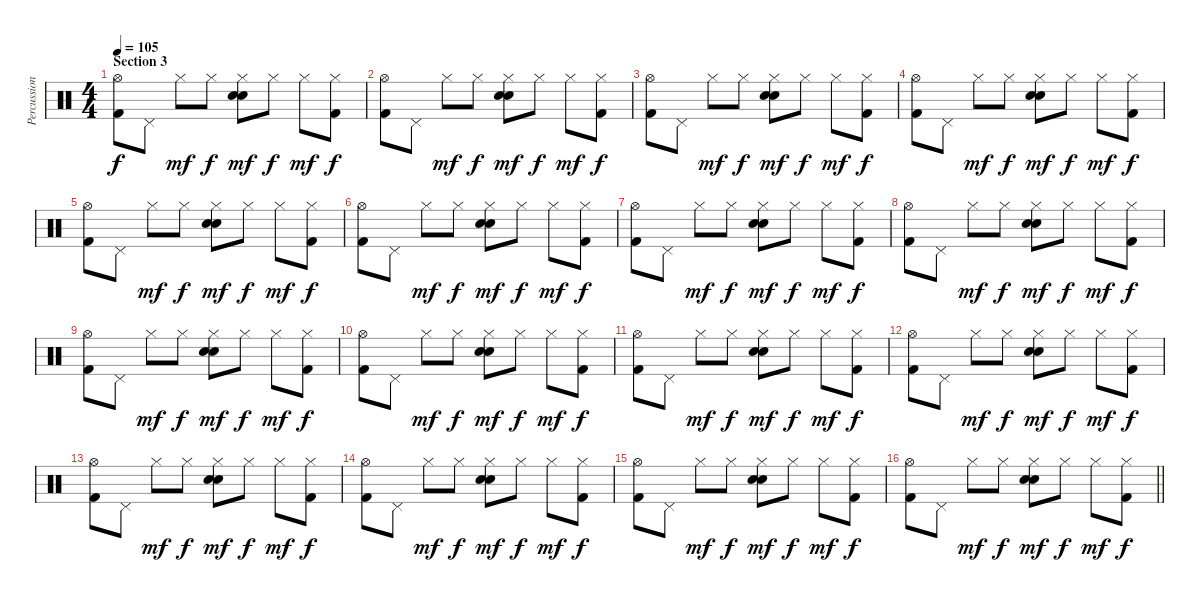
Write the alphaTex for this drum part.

\track ("Percussion" "Percussion") {instrument percussion}
\staff {score}
\articulation defaults
\ts (4 4)
\section ("" "Section 3")
\tempo 105
\clef neutral
\ks c
("Hi-Hat (open)" "Kick (hit) 2").8{dy f volume 10} "Pedal Hi-Hat (hit)".8 "Hi-Hat (closed)".8{dy mf} "Hi-Hat (closed)".8{dy f} ("Hi-Hat (closed)" "Electric Snare (hit)" "Snare (hit) 2").8{dy mf} "Hi-Hat (closed)".8{dy f} "Hi-Hat (closed)".8{dy mf} ("Hi-Hat (closed)" "Kick (hit) 2").8{dy f} |
("Hi-Hat (open)" "Kick (hit) 2").8 "Pedal Hi-Hat (hit)".8 "Hi-Hat (closed)".8{dy mf} "Hi-Hat (closed)".8{dy f} ("Hi-Hat (closed)" "Electric Snare (hit)" "Snare (hit) 2").8{dy mf} "Hi-Hat (closed)".8{dy f} "Hi-Hat (closed)".8{dy mf} ("Hi-Hat (closed)" "Kick (hit) 2").8{dy f} |
("Hi-Hat (open)" "Kick (hit) 2").8 "Pedal Hi-Hat (hit)".8 "Hi-Hat (closed)".8{dy mf} "Hi-Hat (closed)".8{dy f} ("Hi-Hat (closed)" "Electric Snare (hit)" "Snare (hit) 2").8{dy mf} "Hi-Hat (closed)".8{dy f} "Hi-Hat (closed)".8{dy mf} ("Hi-Hat (closed)" "Kick (hit) 2").8{dy f} |
("Hi-Hat (open)" "Kick (hit) 2").8 "Pedal Hi-Hat (hit)".8 "Hi-Hat (closed)".8{dy mf} "Hi-Hat (closed)".8{dy f} ("Hi-Hat (closed)" "Electric Snare (hit)" "Snare (hit) 2").8{dy mf} "Hi-Hat (closed)".8{dy f} "Hi-Hat (closed)".8{dy mf} ("Hi-Hat (closed)" "Kick (hit) 2").8{dy f} |
("Hi-Hat (open)" "Kick (hit) 2").8 "Pedal Hi-Hat (hit)".8 "Hi-Hat (closed)".8{dy mf} "Hi-Hat (closed)".8{dy f} ("Hi-Hat (closed)" "Electric Snare (hit)" "Snare (hit) 2").8{dy mf} "Hi-Hat (closed)".8{dy f} "Hi-Hat (closed)".8{dy mf} ("Hi-Hat (closed)" "Kick (hit) 2").8{dy f} |
("Hi-Hat (open)" "Kick (hit) 2").8 "Pedal Hi-Hat (hit)".8 "Hi-Hat (closed)".8{dy mf} "Hi-Hat (closed)".8{dy f} ("Hi-Hat (closed)" "Electric Snare (hit)" "Snare (hit) 2").8{dy mf} "Hi-Hat (closed)".8{dy f} "Hi-Hat (closed)".8{dy mf} ("Hi-Hat (closed)" "Kick (hit) 2").8{dy f} |
("Hi-Hat (open)" "Kick (hit) 2").8 "Pedal Hi-Hat (hit)".8 "Hi-Hat (closed)".8{dy mf} "Hi-Hat (closed)".8{dy f} ("Hi-Hat (closed)" "Electric Snare (hit)" "Snare (hit) 2").8{dy mf} "Hi-Hat (closed)".8{dy f} "Hi-Hat (closed)".8{dy mf} ("Hi-Hat (closed)" "Kick (hit) 2").8{dy f} |
("Hi-Hat (open)" "Kick (hit) 2").8 "Pedal Hi-Hat (hit)".8 "Hi-Hat (closed)".8{dy mf} "Hi-Hat (closed)".8{dy f} ("Hi-Hat (closed)" "Electric Snare (hit)" "Snare (hit) 2").8{dy mf} "Hi-Hat (closed)".8{dy f} "Hi-Hat (closed)".8{dy mf} ("Hi-Hat (closed)" "Kick (hit) 2").8{dy f} |
("Hi-Hat (open)" "Kick (hit) 2").8{volume 10} "Pedal Hi-Hat (hit)".8 "Hi-Hat (closed)".8{dy mf} "Hi-Hat (closed)".8{dy f} ("Hi-Hat (closed)" "Electric Snare (hit)" "Snare (hit) 2").8{dy mf} "Hi-Hat (closed)".8{dy f} "Hi-Hat (closed)".8{dy mf} ("Hi-Hat (closed)" "Kick (hit) 2").8{dy f} |
("Hi-Hat (open)" "Kick (hit) 2").8 "Pedal Hi-Hat (hit)".8 "Hi-Hat (closed)".8{dy mf} "Hi-Hat (closed)".8{dy f} ("Hi-Hat (closed)" "Electric Snare (hit)" "Snare (hit) 2").8{dy mf} "Hi-Hat (closed)".8{dy f} "Hi-Hat (closed)".8{dy mf} ("Hi-Hat (closed)" "Kick (hit) 2").8{dy f} |
("Hi-Hat (open)" "Kick (hit) 2").8 "Pedal Hi-Hat (hit)".8 "Hi-Hat (closed)".8{dy mf} "Hi-Hat (closed)".8{dy f} ("Hi-Hat (closed)" "Electric Snare (hit)" "Snare (hit) 2").8{dy mf} "Hi-Hat (closed)".8{dy f} "Hi-Hat (closed)".8{dy mf} ("Hi-Hat (closed)" "Kick (hit) 2").8{dy f} |
("Hi-Hat (open)" "Kick (hit) 2").8 "Pedal Hi-Hat (hit)".8 "Hi-Hat (closed)".8{dy mf} "Hi-Hat (closed)".8{dy f} ("Hi-Hat (closed)" "Electric Snare (hit)" "Snare (hit) 2").8{dy mf} "Hi-Hat (closed)".8{dy f} "Hi-Hat (closed)".8{dy mf} ("Hi-Hat (closed)" "Kick (hit) 2").8{dy f} |
("Hi-Hat (open)" "Kick (hit) 2").8 "Pedal Hi-Hat (hit)".8 "Hi-Hat (closed)".8{dy mf} "Hi-Hat (closed)".8{dy f} ("Hi-Hat (closed)" "Electric Snare (hit)" "Snare (hit) 2").8{dy mf} "Hi-Hat (closed)".8{dy f} "Hi-Hat (closed)".8{dy mf} ("Hi-Hat (closed)" "Kick (hit) 2").8{dy f} |
("Hi-Hat (open)" "Kick (hit) 2").8 "Pedal Hi-Hat (hit)".8 "Hi-Hat (closed)".8{dy mf} "Hi-Hat (closed)".8{dy f} ("Hi-Hat (closed)" "Electric Snare (hit)" "Snare (hit) 2").8{dy mf} "Hi-Hat (closed)".8{dy f} "Hi-Hat (closed)".8{dy mf} ("Hi-Hat (closed)" "Kick (hit) 2").8{dy f} |
("Hi-Hat (open)" "Kick (hit) 2").8 "Pedal Hi-Hat (hit)".8 "Hi-Hat (closed)".8{dy mf} "Hi-Hat (closed)".8{dy f} ("Hi-Hat (closed)" "Electric Snare (hit)" "Snare (hit) 2").8{dy mf} "Hi-Hat (closed)".8{dy f} "Hi-Hat (closed)".8{dy mf} ("Hi-Hat (closed)" "Kick (hit) 2").8{dy f} |
\barLineRight lightlight
("Hi-Hat (open)" "Kick (hit) 2").8 "Pedal Hi-Hat (hit)".8 "Hi-Hat (closed)".8{dy mf} "Hi-Hat (closed)".8{dy f} ("Hi-Hat (closed)" "Electric Snare (hit)" "Snare (hit) 2").8{dy mf} "Hi-Hat (closed)".8{dy f} "Hi-Hat (closed)".8{dy mf} ("Hi-Hat (closed)" "Kick (hit) 2").8{dy f}
